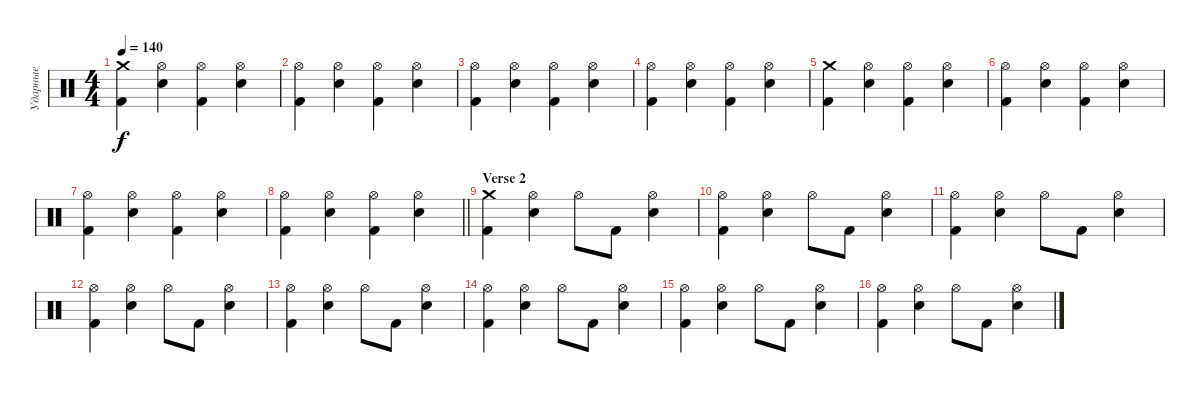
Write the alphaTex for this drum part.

\track ("Ударные" "Ударные") {instrument percussion}
\staff {score}
\articulation defaults
\ts (4 4)
\tempo 140
\clef neutral
\ks c
("Crash medium (hit)" "Kick (hit) 2").4{dy f} ("Hi-Hat (open)" "Electric Snare (hit)").4 ("Hi-Hat (open)" "Kick (hit) 2").4 ("Hi-Hat (open)" "Electric Snare (hit)").4 |
("Hi-Hat (open)" "Kick (hit) 2").4 ("Hi-Hat (open)" "Electric Snare (hit)").4 ("Hi-Hat (open)" "Kick (hit) 2").4 ("Hi-Hat (open)" "Electric Snare (hit)").4 |
("Hi-Hat (open)" "Kick (hit) 2").4 ("Hi-Hat (open)" "Electric Snare (hit)").4 ("Hi-Hat (open)" "Kick (hit) 2").4 ("Hi-Hat (open)" "Electric Snare (hit)").4 |
("Hi-Hat (open)" "Kick (hit) 2").4 ("Hi-Hat (open)" "Electric Snare (hit)").4 ("Hi-Hat (open)" "Kick (hit) 2").4 ("Hi-Hat (open)" "Electric Snare (hit)").4 |
("Crash medium (hit)" "Kick (hit) 2").4 ("Hi-Hat (open)" "Electric Snare (hit)").4 ("Hi-Hat (open)" "Kick (hit) 2").4 ("Hi-Hat (open)" "Electric Snare (hit)").4 |
("Hi-Hat (open)" "Kick (hit) 2").4 ("Hi-Hat (open)" "Electric Snare (hit)").4 ("Hi-Hat (open)" "Kick (hit) 2").4 ("Hi-Hat (open)" "Electric Snare (hit)").4 |
("Hi-Hat (open)" "Kick (hit) 2").4 ("Hi-Hat (open)" "Electric Snare (hit)").4 ("Hi-Hat (open)" "Kick (hit) 2").4 ("Hi-Hat (open)" "Electric Snare (hit)").4 |
\barLineRight lightlight
("Hi-Hat (open)" "Kick (hit) 2").4 ("Hi-Hat (open)" "Electric Snare (hit)").4 ("Hi-Hat (open)" "Kick (hit) 2").4 ("Hi-Hat (open)" "Electric Snare (hit)").4 |
\section ("" "Verse 2")
("Crash medium (hit)" "Kick (hit) 2").4 ("Hi-Hat (open)" "Electric Snare (hit)").4 "Hi-Hat (open)".8 "Kick (hit) 2".8 ("Hi-Hat (open)" "Electric Snare (hit)").4 |
("Hi-Hat (open)" "Kick (hit) 2").4 ("Hi-Hat (open)" "Electric Snare (hit)").4 "Hi-Hat (open)".8 "Kick (hit) 2".8 ("Hi-Hat (open)" "Electric Snare (hit)").4 |
("Hi-Hat (open)" "Kick (hit) 2").4 ("Hi-Hat (open)" "Electric Snare (hit)").4 "Hi-Hat (open)".8 "Kick (hit) 2".8 ("Hi-Hat (open)" "Electric Snare (hit)").4 |
("Hi-Hat (open)" "Kick (hit) 2").4 ("Hi-Hat (open)" "Electric Snare (hit)").4 "Hi-Hat (open)".8 "Kick (hit) 2".8 ("Hi-Hat (open)" "Electric Snare (hit)").4 |
("Hi-Hat (open)" "Kick (hit) 2").4 ("Hi-Hat (open)" "Electric Snare (hit)").4 "Hi-Hat (open)".8 "Kick (hit) 2".8 ("Hi-Hat (open)" "Electric Snare (hit)").4 |
("Hi-Hat (open)" "Kick (hit) 2").4 ("Hi-Hat (open)" "Electric Snare (hit)").4 "Hi-Hat (open)".8 "Kick (hit) 2".8 ("Hi-Hat (open)" "Electric Snare (hit)").4 |
("Hi-Hat (open)" "Kick (hit) 2").4 ("Hi-Hat (open)" "Electric Snare (hit)").4 "Hi-Hat (open)".8 "Kick (hit) 2".8 ("Hi-Hat (open)" "Electric Snare (hit)").4 |
("Hi-Hat (open)" "Kick (hit) 2").4 ("Hi-Hat (open)" "Electric Snare (hit)").4 "Hi-Hat (open)".8 "Kick (hit) 2".8 ("Hi-Hat (open)" "Electric Snare (hit)").4
